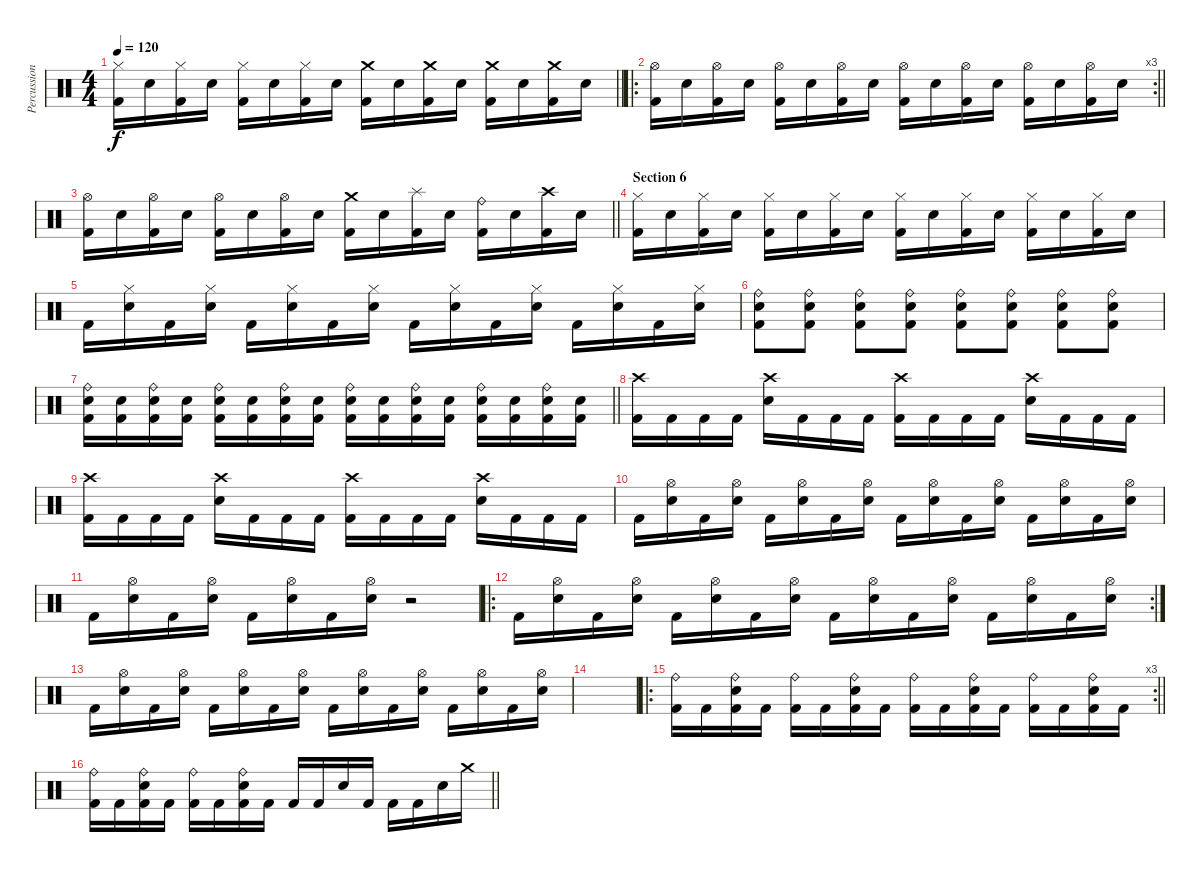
\track ("Percussion" "Percussion") {instrument percussion}
\staff {score}
\articulation defaults
\ts (4 4)
\tempo 120
\clef neutral
\barLineRight lightlight
\ks c
("Kick (hit) 2" "Hi-Hat (closed)").16{dy f} "Snare (hit) 2".16 ("Kick (hit) 2" "Hi-Hat (closed)").16 "Snare (hit) 2".16 ("Kick (hit) 2" "Hi-Hat (closed)").16 "Snare (hit) 2".16 ("Kick (hit) 2" "Hi-Hat (closed)").16 "Snare (hit) 2".16 ("Kick (hit) 2" "Crash medium (hit)").16 "Snare (hit) 2".16 ("Kick (hit) 2" "Crash medium (hit)").16 "Snare (hit) 2".16 ("Kick (hit) 2" "Crash medium (hit)").16 "Snare (hit) 2".16 ("Kick (hit) 2" "Crash medium (hit)").16 "Snare (hit) 2".16 |
\ro
\rc 3
\barLineRight lightlight
("Kick (hit) 2" "Hi-Hat (open)").16 "Snare (hit) 2".16 ("Kick (hit) 2" "Hi-Hat (open)").16 "Snare (hit) 2".16 ("Kick (hit) 2" "Hi-Hat (open)").16 "Snare (hit) 2".16 ("Kick (hit) 2" "Hi-Hat (open)").16 "Snare (hit) 2".16 ("Kick (hit) 2" "Hi-Hat (open)").16 "Snare (hit) 2".16 ("Kick (hit) 2" "Hi-Hat (open)").16 "Snare (hit) 2".16 ("Kick (hit) 2" "Hi-Hat (open)").16 "Snare (hit) 2".16 ("Kick (hit) 2" "Hi-Hat (open)").16 "Snare (hit) 2".16 |
\barLineRight lightlight
("Kick (hit) 2" "Hi-Hat (open)").16 "Snare (hit) 2".16 ("Kick (hit) 2" "Hi-Hat (open)").16 "Snare (hit) 2".16 ("Kick (hit) 2" "Hi-Hat (open)").16 "Snare (hit) 2".16 ("Kick (hit) 2" "Hi-Hat (open)").16 "Snare (hit) 2".16 ("Kick (hit) 2" "Crash medium (hit)").16 "Snare (hit) 2".16 ("Kick (hit) 2" "Splash (hit)").16 "Snare (hit) 2".16 ("Kick (hit) 2" "Ride (bell)").16 "Snare (hit) 2".16 ("Kick (hit) 2" "Crash high (hit)").16 "Snare (hit) 2".16 |
\section ("" "Section 6")
("Kick (hit) 2" "Hi-Hat (closed)").16 "Snare (hit) 2".16 ("Kick (hit) 2" "Hi-Hat (closed)").16 "Snare (hit) 2".16 ("Kick (hit) 2" "Hi-Hat (closed)").16 "Snare (hit) 2".16 ("Kick (hit) 2" "Hi-Hat (closed)").16 "Snare (hit) 2".16 ("Kick (hit) 2" "Hi-Hat (closed)").16 "Snare (hit) 2".16 ("Kick (hit) 2" "Hi-Hat (closed)").16 "Snare (hit) 2".16 ("Kick (hit) 2" "Hi-Hat (closed)").16 "Snare (hit) 2".16 ("Kick (hit) 2" "Hi-Hat (closed)").16 "Snare (hit) 2".16 |
"Kick (hit) 2".16 ("Snare (hit) 2" "Hi-Hat (closed)").16 "Kick (hit) 2".16 ("Snare (hit) 2" "Hi-Hat (closed)").16 "Kick (hit) 2".16 ("Snare (hit) 2" "Hi-Hat (closed)").16 "Kick (hit) 2".16 ("Snare (hit) 2" "Hi-Hat (closed)").16 "Kick (hit) 2".16 ("Snare (hit) 2" "Hi-Hat (closed)").16 "Kick (hit) 2".16 ("Snare (hit) 2" "Hi-Hat (closed)").16 "Kick (hit) 2".16 ("Snare (hit) 2" "Hi-Hat (closed)").16 "Kick (hit) 2".16 ("Snare (hit) 2" "Hi-Hat (closed)").16 |
("Kick (hit) 2" "Snare (hit) 2" "Ride (bell)").8 ("Kick (hit) 2" "Snare (hit) 2" "Ride (bell)").8 ("Kick (hit) 2" "Snare (hit) 2" "Ride (bell)").8 ("Kick (hit) 2" "Snare (hit) 2" "Ride (bell)").8 ("Kick (hit) 2" "Snare (hit) 2" "Ride (bell)").8 ("Kick (hit) 2" "Snare (hit) 2" "Ride (bell)").8 ("Kick (hit) 2" "Snare (hit) 2" "Ride (bell)").8 ("Kick (hit) 2" "Snare (hit) 2" "Ride (bell)").8 |
\barLineRight lightlight
("Kick (hit) 2" "Snare (hit) 2" "Ride (bell)").16 ("Kick (hit) 2" "Snare (hit) 2").16 ("Kick (hit) 2" "Snare (hit) 2" "Ride (bell)").16 ("Kick (hit) 2" "Snare (hit) 2").16 ("Kick (hit) 2" "Snare (hit) 2" "Ride (bell)").16 ("Kick (hit) 2" "Snare (hit) 2").16 ("Kick (hit) 2" "Snare (hit) 2" "Ride (bell)").16 ("Kick (hit) 2" "Snare (hit) 2").16 ("Kick (hit) 2" "Snare (hit) 2" "Ride (bell)").16 ("Kick (hit) 2" "Snare (hit) 2").16 ("Kick (hit) 2" "Snare (hit) 2" "Ride (bell)").16 ("Kick (hit) 2" "Snare (hit) 2").16 ("Kick (hit) 2" "Snare (hit) 2" "Ride (bell)").16 ("Kick (hit) 2" "Snare (hit) 2").16 ("Kick (hit) 2" "Snare (hit) 2" "Ride (bell)").16 ("Kick (hit) 2" "Snare (hit) 2").16 |
("Kick (hit) 2" "Crash high (hit)").16 "Kick (hit) 2".16 "Kick (hit) 2".16 "Kick (hit) 2".16 ("Snare (hit) 2" "Crash high (hit)").16 "Kick (hit) 2".16 "Kick (hit) 2".16 "Kick (hit) 2".16 ("Kick (hit) 2" "Crash high (hit)").16 "Kick (hit) 2".16 "Kick (hit) 2".16 "Kick (hit) 2".16 ("Snare (hit) 2" "Crash high (hit)").16 "Kick (hit) 2".16 "Kick (hit) 2".16 "Kick (hit) 2".16 |
("Kick (hit) 2" "Crash high (hit)").16 "Kick (hit) 2".16 "Kick (hit) 2".16 "Kick (hit) 2".16 ("Snare (hit) 2" "Crash high (hit)").16 "Kick (hit) 2".16 "Kick (hit) 2".16 "Kick (hit) 2".16 ("Kick (hit) 2" "Crash high (hit)").16 "Kick (hit) 2".16 "Kick (hit) 2".16 "Kick (hit) 2".16 ("Snare (hit) 2" "Crash high (hit)").16 "Kick (hit) 2".16 "Kick (hit) 2".16 "Kick (hit) 2".16 |
"Kick (hit) 2".16 ("Snare (hit) 2" "Hi-Hat (open)").16 "Kick (hit) 2".16 ("Snare (hit) 2" "Hi-Hat (open)").16 "Kick (hit) 2".16 ("Snare (hit) 2" "Hi-Hat (open)").16 "Kick (hit) 2".16 ("Snare (hit) 2" "Hi-Hat (open)").16 "Kick (hit) 2".16 ("Snare (hit) 2" "Hi-Hat (open)").16 "Kick (hit) 2".16 ("Snare (hit) 2" "Hi-Hat (open)").16 "Kick (hit) 2".16 ("Snare (hit) 2" "Hi-Hat (open)").16 "Kick (hit) 2".16 ("Snare (hit) 2" "Hi-Hat (open)").16 |
"Kick (hit) 2".16 ("Snare (hit) 2" "Hi-Hat (open)").16 "Kick (hit) 2".16 ("Snare (hit) 2" "Hi-Hat (open)").16 "Kick (hit) 2".16 ("Snare (hit) 2" "Hi-Hat (open)").16 "Kick (hit) 2".16 ("Snare (hit) 2" "Hi-Hat (open)").16 r.2 |
\ro
\rc 2 "Kick (hit) 2".16
("Snare (hit) 2" "Hi-Hat (open)").16 "Kick (hit) 2".16 ("Snare (hit) 2" "Hi-Hat (open)").16 "Kick (hit) 2".16 ("Snare (hit) 2" "Hi-Hat (open)").16 "Kick (hit) 2".16 ("Snare (hit) 2" "Hi-Hat (open)").16 "Kick (hit) 2".16 ("Snare (hit) 2" "Hi-Hat (open)").16 "Kick (hit) 2".16 ("Snare (hit) 2" "Hi-Hat (open)").16 "Kick (hit) 2".16 ("Snare (hit) 2" "Hi-Hat (open)").16 "Kick (hit) 2".16 ("Snare (hit) 2" "Hi-Hat (open)").16 |
"Kick (hit) 2".16 ("Snare (hit) 2" "Hi-Hat (open)").16 "Kick (hit) 2".16 ("Snare (hit) 2" "Hi-Hat (open)").16 "Kick (hit) 2".16 ("Snare (hit) 2" "Hi-Hat (open)").16 "Kick (hit) 2".16 ("Snare (hit) 2" "Hi-Hat (open)").16 "Kick (hit) 2".16 ("Snare (hit) 2" "Hi-Hat (open)").16 "Kick (hit) 2".16 ("Snare (hit) 2" "Hi-Hat (open)").16 "Kick (hit) 2".16 ("Snare (hit) 2" "Hi-Hat (open)").16 "Kick (hit) 2".16 ("Snare (hit) 2" "Hi-Hat (open)").16 |
|
\ro
\rc 3
\barLineRight lightlight
("Kick (hit) 2" "Ride (bell)").16 "Kick (hit) 2".16 ("Kick (hit) 2" "Snare (hit) 2" "Ride (bell)").16 "Kick (hit) 2".16 ("Kick (hit) 2" "Ride (bell)").16 "Kick (hit) 2".16 ("Kick (hit) 2" "Snare (hit) 2" "Ride (bell)").16 "Kick (hit) 2".16 ("Kick (hit) 2" "Ride (bell)").16 "Kick (hit) 2".16 ("Kick (hit) 2" "Snare (hit) 2" "Ride (bell)").16 "Kick (hit) 2".16 ("Kick (hit) 2" "Ride (bell)").16 "Kick (hit) 2".16 ("Kick (hit) 2" "Snare (hit) 2" "Ride (bell)").16 "Kick (hit) 2".16 |
\barLineRight lightlight
("Kick (hit) 2" "Ride (bell)").16 "Kick (hit) 2".16 ("Kick (hit) 2" "Snare (hit) 2" "Ride (bell)").16 "Kick (hit) 2".16 ("Kick (hit) 2" "Ride (bell)").16 "Kick (hit) 2".16 ("Kick (hit) 2" "Snare (hit) 2" "Ride (bell)").16 "Kick (hit) 2".16 "Kick (hit) 2".16 "Kick (hit) 2".16 "Snare (hit) 2".16 "Kick (hit) 2".16 "Kick (hit) 2".16 "Kick (hit) 2".16 "Snare (hit) 2".16 "Crash medium (hit)".16
